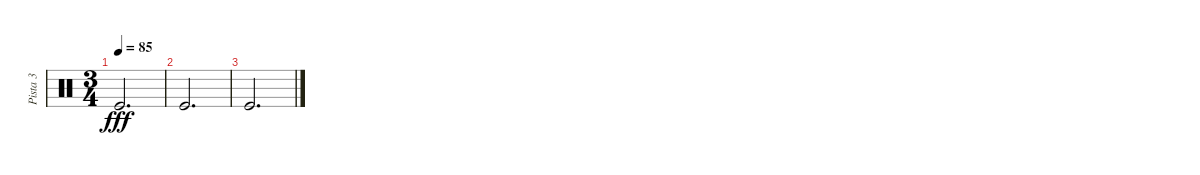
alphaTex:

\track ("Pista 3" "Pista 3") {instrument percussion}
\staff {score}
\articulation defaults
\ts (3 4)
\tempo 85
\clef neutral
\ks c "Kick (hit)".2{d dy fff}
|
"Kick (hit)".2{d} |
"Kick (hit)".2{d}
